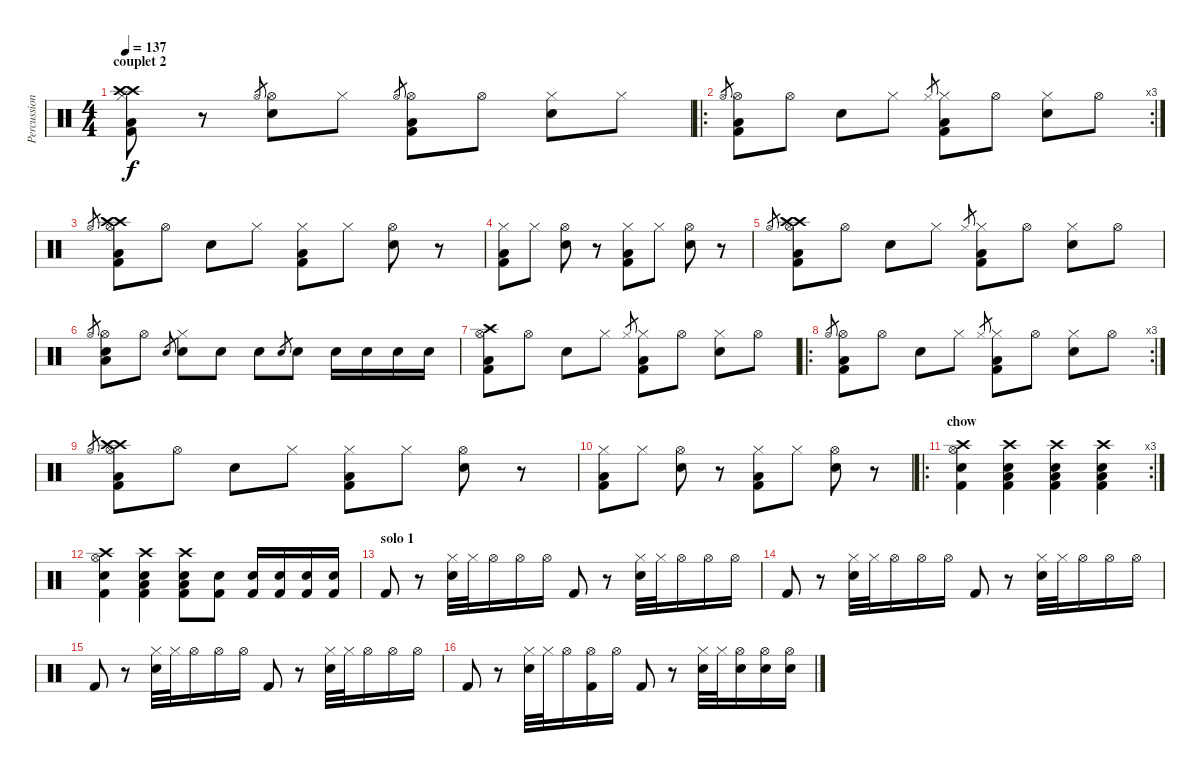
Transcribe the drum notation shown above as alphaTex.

\track ("Percussions" "Percussion") {instrument percussion}
\staff {score}
\articulation defaults
\ts (4 4)
\section ("" "couplet 2")
\tempo 137
\clef neutral
\ks c
("Hi-Hat (closed)" "Crash high (hit)" "Crash high (hit)" "Kick (hit) 2" "Low Floor Tom (hit)").8{dy f} r.8 "Hi-Hat (open)".8{gr} ("Hi-Hat (open)" "Snare (hit) 2").8 "Hi-Hat (closed)".8 "Hi-Hat (open)".8{gr} ("Hi-Hat (open)" "Kick (hit) 2" "Low Floor Tom (hit)").8 "Hi-Hat (open)".8 ("Hi-Hat (closed)" "Snare (hit) 2").8 "Hi-Hat (closed)".8 |
\ro
\rc 3 "Hi-Hat (open)".8{gr}
("Hi-Hat (open)" "Kick (hit) 2" "Low Floor Tom (hit)").8 "Hi-Hat (open)".8 "Snare (hit) 2".8 "Hi-Hat (closed)".8 "Hi-Hat (closed)".8{gr} ("Hi-Hat (closed)" "Kick (hit) 2" "Low Floor Tom (hit)").8 "Hi-Hat (open)".8 ("Hi-Hat (closed)" "Snare (hit) 2").8 "Hi-Hat (open)".8 |
"Hi-Hat (open)".8{gr} ("Hi-Hat (open)" "Crash high (hit)" "Crash high (hit)" "Kick (hit) 2" "Low Floor Tom (hit)").8 "Hi-Hat (open)".8 "Snare (hit) 2".8 "Hi-Hat (closed)".8 ("Hi-Hat (closed)" "Kick (hit) 2" "Low Floor Tom (hit)").8 "Hi-Hat (closed)".8 ("Hi-Hat (open)" "Snare (hit) 2").8 r.8 |
("Hi-Hat (closed)" "Kick (hit) 2" "Low Floor Tom (hit)").8 "Hi-Hat (closed)".8 ("Hi-Hat (open)" "Snare (hit) 2").8 r.8 ("Hi-Hat (closed)" "Kick (hit) 2" "Low Floor Tom (hit)").8 "Hi-Hat (closed)".8 ("Hi-Hat (open)" "Snare (hit) 2").8 r.8 |
"Hi-Hat (open)".8{gr} ("Hi-Hat (open)" "Crash high (hit)" "Crash high (hit)" "Kick (hit) 2" "Low Floor Tom (hit)").8 "Hi-Hat (open)".8 "Snare (hit) 2".8 "Hi-Hat (closed)".8 "Hi-Hat (closed)".8{gr} ("Hi-Hat (closed)" "Kick (hit) 2" "Low Floor Tom (hit)").8 "Hi-Hat (open)".8 ("Hi-Hat (closed)" "Snare (hit) 2").8 "Hi-Hat (open)".8 |
"Hi-Hat (open)".8{gr} ("Hi-Hat (open)" "Snare (hit) 2" "Low Floor Tom (hit)").8 "Hi-Hat (open)".8 "Snare (hit) 2".8{gr} ("Hi-Hat (closed)" "Snare (hit) 2").8 "Snare (hit) 2".8 "Snare (hit) 2".8 "Snare (hit) 2".8{gr} "Snare (hit) 2".8 "Snare (hit) 2".16 "Snare (hit) 2".16 "Snare (hit) 2".16 "Snare (hit) 2".16 |
("Hi-Hat (open)" "Crash high (hit)" "Kick (hit) 2" "Low Floor Tom (hit)").8 "Hi-Hat (open)".8 "Snare (hit) 2".8 "Hi-Hat (closed)".8 "Hi-Hat (closed)".8{gr} ("Hi-Hat (closed)" "Kick (hit) 2" "Low Floor Tom (hit)").8 "Hi-Hat (open)".8 ("Hi-Hat (closed)" "Snare (hit) 2").8 "Hi-Hat (open)".8 |
\ro
\rc 3 "Hi-Hat (open)".8{gr}
("Hi-Hat (open)" "Kick (hit) 2" "Low Floor Tom (hit)").8 "Hi-Hat (open)".8 "Snare (hit) 2".8 "Hi-Hat (closed)".8 "Hi-Hat (closed)".8{gr} ("Hi-Hat (closed)" "Kick (hit) 2" "Low Floor Tom (hit)").8 "Hi-Hat (open)".8 ("Hi-Hat (closed)" "Snare (hit) 2").8 "Hi-Hat (open)".8 |
"Hi-Hat (open)".8{gr} ("Hi-Hat (open)" "Crash high (hit)" "Crash high (hit)" "Kick (hit) 2" "Low Floor Tom (hit)").8 "Hi-Hat (open)".8 "Snare (hit) 2".8 "Hi-Hat (closed)".8 ("Hi-Hat (closed)" "Kick (hit) 2" "Low Floor Tom (hit)").8 "Hi-Hat (closed)".8 ("Hi-Hat (open)" "Snare (hit) 2").8 r.8 |
("Hi-Hat (closed)" "Kick (hit) 2" "Low Floor Tom (hit)").8 "Hi-Hat (closed)".8 ("Hi-Hat (open)" "Snare (hit) 2").8 r.8 ("Hi-Hat (closed)" "Kick (hit) 2" "Low Floor Tom (hit)").8 "Hi-Hat (closed)".8 ("Hi-Hat (open)" "Snare (hit) 2").8 r.8 |
\ro
\rc 3
\section ("" "chow")
("Kick (hit) 2" "Hi-Hat (open)" "Snare (hit) 2" "Crash high (hit)").4 ("Kick (hit) 2" "Low Floor Tom (hit)" "Snare (hit) 2" "Crash high (hit)").4 ("Kick (hit) 2" "Low Floor Tom (hit)" "Snare (hit) 2" "Crash high (hit)").4 ("Kick (hit) 2" "Low Floor Tom (hit)" "Snare (hit) 2" "Crash high (hit)").4 |
("Kick (hit) 2" "Hi-Hat (open)" "Snare (hit) 2" "Crash high (hit)").4 ("Kick (hit) 2" "Low Floor Tom (hit)" "Snare (hit) 2" "Crash high (hit)").4 ("Kick (hit) 2" "Low Floor Tom (hit)" "Snare (hit) 2" "Crash high (hit)").8 ("Snare (hit) 2" "Kick (hit) 2").8 ("Snare (hit) 2" "Kick (hit) 2").16 ("Snare (hit) 2" "Kick (hit) 2").16 ("Snare (hit) 2" "Kick (hit) 2").16 ("Snare (hit) 2" "Kick (hit) 2").16 |
\section ("" "solo 1")
"Kick (hit) 2".8 r.8 ("Snare (hit) 2" "Hi-Hat (closed)").32 "Hi-Hat (closed)".32 "Hi-Hat (open)".16 "Hi-Hat (open)".16 "Hi-Hat (open)".16 "Kick (hit) 2".8 r.8 ("Snare (hit) 2" "Hi-Hat (closed)").32 "Hi-Hat (closed)".32 "Hi-Hat (open)".16 "Hi-Hat (open)".16 "Hi-Hat (open)".16 |
"Kick (hit) 2".8 r.8 ("Snare (hit) 2" "Hi-Hat (closed)").32 "Hi-Hat (closed)".32 "Hi-Hat (open)".16 "Hi-Hat (open)".16 "Hi-Hat (open)".16 "Kick (hit) 2".8 r.8 ("Snare (hit) 2" "Hi-Hat (closed)").32 "Hi-Hat (closed)".32 "Hi-Hat (open)".16 "Hi-Hat (open)".16 "Hi-Hat (open)".16 |
"Kick (hit) 2".8 r.8 ("Snare (hit) 2" "Hi-Hat (closed)").32 "Hi-Hat (closed)".32 "Hi-Hat (open)".16 "Hi-Hat (open)".16 "Hi-Hat (open)".16 "Kick (hit) 2".8 r.8 ("Snare (hit) 2" "Hi-Hat (closed)").32 "Hi-Hat (closed)".32 "Hi-Hat (open)".16 "Hi-Hat (open)".16 "Hi-Hat (open)".16 |
"Kick (hit) 2".8 r.8 ("Snare (hit) 2" "Hi-Hat (closed)").32 "Hi-Hat (closed)".32 "Hi-Hat (open)".16 ("Hi-Hat (open)" "Kick (hit) 2").16 "Hi-Hat (open)".16 "Kick (hit) 2".8 r.8 ("Snare (hit) 2" "Hi-Hat (closed)").32 "Hi-Hat (closed)".32 ("Hi-Hat (open)" "Snare (hit) 2").16 ("Hi-Hat (open)" "Snare (hit) 2").16 ("Hi-Hat (open)" "Snare (hit) 2").16
